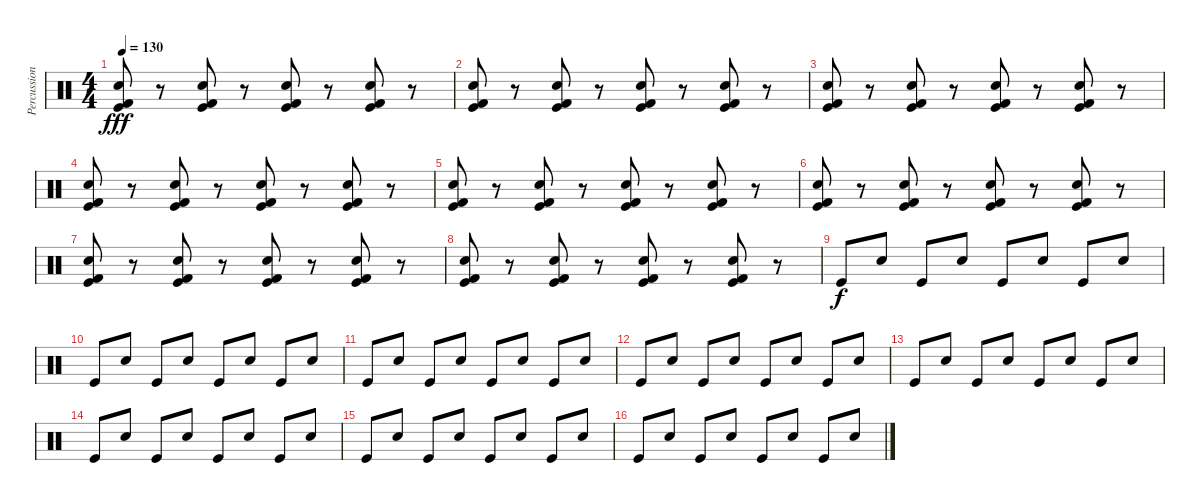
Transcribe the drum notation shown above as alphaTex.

\track ("Percussions" "Percussion") {instrument percussion}
\staff {score}
\articulation defaults
\ts (4 4)
\tempo 130
\clef neutral
\ks c
("Electric Snare (hit)" "Kick (hit)" "Kick (hit) 2").8{dy fff} r.8 ("Electric Snare (hit)" "Kick (hit)" "Kick (hit) 2").8 r.8 ("Electric Snare (hit)" "Kick (hit)" "Kick (hit) 2").8 r.8 ("Electric Snare (hit)" "Kick (hit)" "Kick (hit) 2").8 r.8 |
("Electric Snare (hit)" "Kick (hit)" "Kick (hit) 2").8 r.8 ("Electric Snare (hit)" "Kick (hit)" "Kick (hit) 2").8 r.8 ("Electric Snare (hit)" "Kick (hit)" "Kick (hit) 2").8 r.8 ("Electric Snare (hit)" "Kick (hit)" "Kick (hit) 2").8 r.8 |
("Electric Snare (hit)" "Kick (hit)" "Kick (hit) 2").8 r.8 ("Electric Snare (hit)" "Kick (hit)" "Kick (hit) 2").8 r.8 ("Electric Snare (hit)" "Kick (hit)" "Kick (hit) 2").8 r.8 ("Electric Snare (hit)" "Kick (hit)" "Kick (hit) 2").8 r.8 |
("Electric Snare (hit)" "Kick (hit)" "Kick (hit) 2").8 r.8 ("Electric Snare (hit)" "Kick (hit)" "Kick (hit) 2").8 r.8 ("Electric Snare (hit)" "Kick (hit)" "Kick (hit) 2").8 r.8 ("Electric Snare (hit)" "Kick (hit)" "Kick (hit) 2").8 r.8 |
("Electric Snare (hit)" "Kick (hit)" "Kick (hit) 2").8 r.8 ("Electric Snare (hit)" "Kick (hit)" "Kick (hit) 2").8 r.8 ("Electric Snare (hit)" "Kick (hit)" "Kick (hit) 2").8 r.8 ("Electric Snare (hit)" "Kick (hit)" "Kick (hit) 2").8 r.8 |
("Electric Snare (hit)" "Kick (hit)" "Kick (hit) 2").8 r.8 ("Electric Snare (hit)" "Kick (hit)" "Kick (hit) 2").8 r.8 ("Electric Snare (hit)" "Kick (hit)" "Kick (hit) 2").8 r.8 ("Electric Snare (hit)" "Kick (hit)" "Kick (hit) 2").8 r.8 |
("Electric Snare (hit)" "Kick (hit)" "Kick (hit) 2").8 r.8 ("Electric Snare (hit)" "Kick (hit)" "Kick (hit) 2").8 r.8 ("Electric Snare (hit)" "Kick (hit)" "Kick (hit) 2").8 r.8 ("Electric Snare (hit)" "Kick (hit)" "Kick (hit) 2").8 r.8 |
("Electric Snare (hit)" "Kick (hit)" "Kick (hit) 2").8 r.8 ("Electric Snare (hit)" "Kick (hit)" "Kick (hit) 2").8 r.8 ("Electric Snare (hit)" "Kick (hit)" "Kick (hit) 2").8 r.8 ("Electric Snare (hit)" "Kick (hit)" "Kick (hit) 2").8 r.8 |
"Kick (hit)".8{dy f} "Hand Clap (hit)".8 "Kick (hit)".8 "Hand Clap (hit)".8 "Kick (hit)".8 "Hand Clap (hit)".8 "Kick (hit)".8 "Hand Clap (hit)".8 |
"Kick (hit)".8 "Hand Clap (hit)".8 "Kick (hit)".8 "Hand Clap (hit)".8 "Kick (hit)".8 "Hand Clap (hit)".8 "Kick (hit)".8 "Hand Clap (hit)".8 |
"Kick (hit)".8 "Hand Clap (hit)".8 "Kick (hit)".8 "Hand Clap (hit)".8 "Kick (hit)".8 "Hand Clap (hit)".8 "Kick (hit)".8 "Hand Clap (hit)".8 |
"Kick (hit)".8 "Hand Clap (hit)".8 "Kick (hit)".8 "Hand Clap (hit)".8 "Kick (hit)".8 "Hand Clap (hit)".8 "Kick (hit)".8 "Hand Clap (hit)".8 |
"Kick (hit)".8 "Hand Clap (hit)".8 "Kick (hit)".8 "Hand Clap (hit)".8 "Kick (hit)".8 "Hand Clap (hit)".8 "Kick (hit)".8 "Hand Clap (hit)".8 |
"Kick (hit)".8 "Hand Clap (hit)".8 "Kick (hit)".8 "Hand Clap (hit)".8 "Kick (hit)".8 "Hand Clap (hit)".8 "Kick (hit)".8 "Hand Clap (hit)".8 |
"Kick (hit)".8 "Hand Clap (hit)".8 "Kick (hit)".8 "Hand Clap (hit)".8 "Kick (hit)".8 "Hand Clap (hit)".8 "Kick (hit)".8 "Hand Clap (hit)".8 |
"Kick (hit)".8 "Hand Clap (hit)".8 "Kick (hit)".8 "Hand Clap (hit)".8 "Kick (hit)".8 "Hand Clap (hit)".8 "Kick (hit)".8 "Hand Clap (hit)".8
